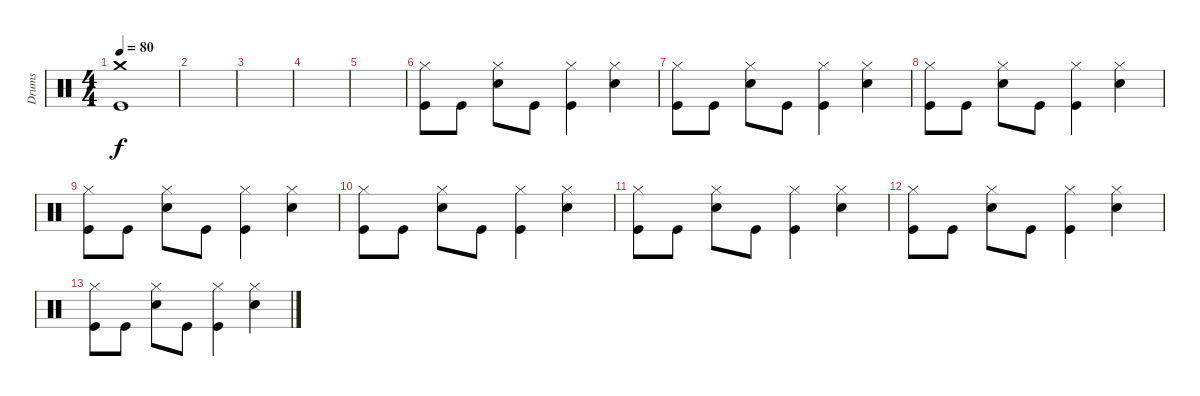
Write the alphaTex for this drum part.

\track ("Drums" "Drums") {instrument percussion}
\staff {score}
\articulation defaults
\ts (4 4)
\tempo 80
\clef neutral
\ks c
("Crash medium (hit)" "Kick (hit)").1{dy f} |
|
|
|
|
("Hi-Hat (closed)" "Kick (hit)").8{volume 7} "Kick (hit)".8 ("Hi-Hat (closed)" "Snare (hit) 2").8 "Kick (hit)".8 ("Hi-Hat (closed)" "Kick (hit)").4 ("Hi-Hat (closed)" "Snare (hit) 2").4 |
("Hi-Hat (closed)" "Kick (hit)").8 "Kick (hit)".8 ("Hi-Hat (closed)" "Snare (hit) 2").8 "Kick (hit)".8 ("Hi-Hat (closed)" "Kick (hit)").4 ("Hi-Hat (closed)" "Snare (hit) 2").4 |
("Hi-Hat (closed)" "Kick (hit)").8 "Kick (hit)".8 ("Hi-Hat (closed)" "Snare (hit) 2").8 "Kick (hit)".8 ("Hi-Hat (closed)" "Kick (hit)").4 ("Hi-Hat (closed)" "Snare (hit) 2").4 |
("Hi-Hat (closed)" "Kick (hit)").8 "Kick (hit)".8 ("Hi-Hat (closed)" "Snare (hit) 2").8 "Kick (hit)".8 ("Hi-Hat (closed)" "Kick (hit)").4 ("Hi-Hat (closed)" "Snare (hit) 2").4 |
("Hi-Hat (closed)" "Kick (hit)").8{volume 0} "Kick (hit)".8 ("Hi-Hat (closed)" "Snare (hit) 2").8 "Kick (hit)".8 ("Hi-Hat (closed)" "Kick (hit)").4 ("Hi-Hat (closed)" "Snare (hit) 2").4 |
("Hi-Hat (closed)" "Kick (hit)").8 "Kick (hit)".8 ("Hi-Hat (closed)" "Snare (hit) 2").8 "Kick (hit)".8 ("Hi-Hat (closed)" "Kick (hit)").4 ("Hi-Hat (closed)" "Snare (hit) 2").4 |
("Hi-Hat (closed)" "Kick (hit)").8 "Kick (hit)".8 ("Hi-Hat (closed)" "Snare (hit) 2").8 "Kick (hit)".8 ("Hi-Hat (closed)" "Kick (hit)").4 ("Hi-Hat (closed)" "Snare (hit) 2").4 |
("Hi-Hat (closed)" "Kick (hit)").8 "Kick (hit)".8 ("Hi-Hat (closed)" "Snare (hit) 2").8 "Kick (hit)".8 ("Hi-Hat (closed)" "Kick (hit)").4 ("Hi-Hat (closed)" "Snare (hit) 2").4
